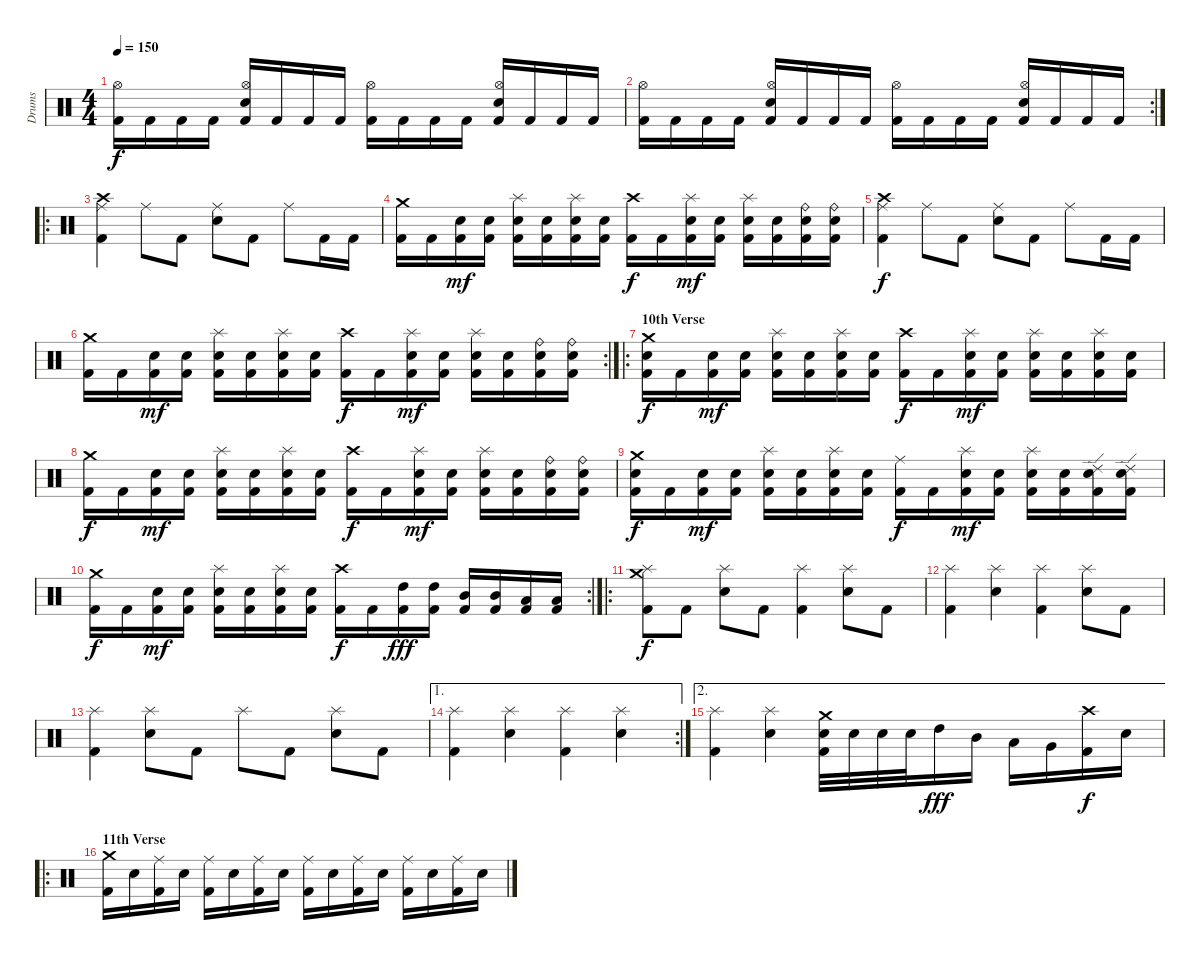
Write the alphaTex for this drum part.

\track ("Drums" "Drums") {instrument percussion}
\staff {score}
\articulation defaults
\ts (4 4)
\tempo 150
\clef neutral
\ks c
("Kick (hit) 2" "Hi-Hat (open)").16{dy f} "Kick (hit) 2".16 "Kick (hit) 2".16 "Kick (hit) 2".16 ("Kick (hit) 2" "Electric Snare (hit)" "Hi-Hat (open)").16 "Kick (hit) 2".16 "Kick (hit) 2".16 "Kick (hit) 2".16 ("Kick (hit) 2" "Hi-Hat (open)").16 "Kick (hit) 2".16 "Kick (hit) 2".16 "Kick (hit) 2".16 ("Kick (hit) 2" "Electric Snare (hit)" "Hi-Hat (open)").16 "Kick (hit) 2".16 "Kick (hit) 2".16 "Kick (hit) 2".16 |
\rc 2
("Kick (hit) 2" "Hi-Hat (open)").16 "Kick (hit) 2".16 "Kick (hit) 2".16 "Kick (hit) 2".16 ("Kick (hit) 2" "Electric Snare (hit)" "Hi-Hat (open)").16 "Kick (hit) 2".16 "Kick (hit) 2".16 "Kick (hit) 2".16 ("Kick (hit) 2" "Hi-Hat (open)").16 "Kick (hit) 2".16 "Kick (hit) 2".16 "Kick (hit) 2".16 ("Kick (hit) 2" "Electric Snare (hit)" "Hi-Hat (open)").16 "Kick (hit) 2".16 "Kick (hit) 2".16 "Kick (hit) 2".16 |
\ro
("Kick (hit) 2" "Ride (middle)" "Crash high (hit)").4 "Ride (middle)".8 "Kick (hit) 2".8 ("Electric Snare (hit)" "Ride (middle)").8 "Kick (hit) 2".8 "Ride (middle)".8 "Kick (hit) 2".16 "Kick (hit) 2".16 |
("Kick (hit) 2" "Crash medium (hit)").16 "Kick (hit) 2".16 ("Kick (hit) 2" "Electric Snare (hit)").16{dy mf} ("Kick (hit) 2" "Electric Snare (hit)").16 ("Kick (hit) 2" "Electric Snare (hit)" "Splash (hit)").16 ("Kick (hit) 2" "Electric Snare (hit)").16 ("Kick (hit) 2" "Electric Snare (hit)" "Splash (hit)").16 ("Kick (hit) 2" "Electric Snare (hit)").16 ("Kick (hit) 2" "Crash high (hit)").16{dy f} "Kick (hit) 2".16 ("Kick (hit) 2" "Electric Snare (hit)" "Splash (hit)").16{dy mf} ("Kick (hit) 2" "Electric Snare (hit)").16 ("Kick (hit) 2" "Electric Snare (hit)" "Splash (hit)").16 ("Kick (hit) 2" "Electric Snare (hit)").16 ("Kick (hit) 2" "Electric Snare (hit)" "Ride (bell)").16 ("Kick (hit) 2" "Electric Snare (hit)" "Ride (bell)").16 |
("Kick (hit) 2" "Ride (middle)" "Crash high (hit)").4{dy f} "Ride (middle)".8 "Kick (hit) 2".8 ("Electric Snare (hit)" "Ride (middle)").8 "Kick (hit) 2".8 "Ride (middle)".8 "Kick (hit) 2".16 "Kick (hit) 2".16 |
\rc 2
("Kick (hit) 2" "Crash medium (hit)").16 "Kick (hit) 2".16 ("Kick (hit) 2" "Electric Snare (hit)").16{dy mf} ("Kick (hit) 2" "Electric Snare (hit)").16 ("Kick (hit) 2" "Electric Snare (hit)" "Splash (hit)").16 ("Kick (hit) 2" "Electric Snare (hit)").16 ("Kick (hit) 2" "Electric Snare (hit)" "Splash (hit)").16 ("Kick (hit) 2" "Electric Snare (hit)").16 ("Kick (hit) 2" "Crash high (hit)").16{dy f} "Kick (hit) 2".16 ("Kick (hit) 2" "Electric Snare (hit)" "Splash (hit)").16{dy mf} ("Kick (hit) 2" "Electric Snare (hit)").16 ("Kick (hit) 2" "Electric Snare (hit)" "Splash (hit)").16 ("Kick (hit) 2" "Electric Snare (hit)").16 ("Kick (hit) 2" "Electric Snare (hit)" "Ride (bell)").16 ("Kick (hit) 2" "Electric Snare (hit)" "Ride (bell)").16 |
\ro
\section ("" "10th Verse")
("Kick (hit) 2" "Electric Snare (hit)" "Crash medium (hit)").16{dy f} "Kick (hit) 2".16 ("Kick (hit) 2" "Electric Snare (hit)").16{dy mf} ("Kick (hit) 2" "Electric Snare (hit)").16 ("Kick (hit) 2" "Electric Snare (hit)" "Splash (hit)").16 ("Kick (hit) 2" "Electric Snare (hit)").16 ("Kick (hit) 2" "Electric Snare (hit)" "Splash (hit)").16 ("Kick (hit) 2" "Electric Snare (hit)").16 ("Kick (hit) 2" "Crash high (hit)").16{dy f} "Kick (hit) 2".16 ("Kick (hit) 2" "Electric Snare (hit)" "Splash (hit)").16{dy mf} ("Kick (hit) 2" "Electric Snare (hit)").16 ("Kick (hit) 2" "Electric Snare (hit)" "Splash (hit)").16 ("Kick (hit) 2" "Electric Snare (hit)").16 ("Kick (hit) 2" "Electric Snare (hit)" "Splash (hit)").16 ("Kick (hit) 2" "Electric Snare (hit)").16 |
("Kick (hit) 2" "Crash medium (hit)").16{dy f} "Kick (hit) 2".16 ("Kick (hit) 2" "Electric Snare (hit)").16{dy mf} ("Kick (hit) 2" "Electric Snare (hit)").16 ("Kick (hit) 2" "Electric Snare (hit)" "Splash (hit)").16 ("Kick (hit) 2" "Electric Snare (hit)").16 ("Kick (hit) 2" "Electric Snare (hit)" "Splash (hit)").16 ("Kick (hit) 2" "Electric Snare (hit)").16 ("Kick (hit) 2" "Crash high (hit)").16{dy f} "Kick (hit) 2".16 ("Kick (hit) 2" "Electric Snare (hit)" "Splash (hit)").16{dy mf} ("Kick (hit) 2" "Electric Snare (hit)").16 ("Kick (hit) 2" "Electric Snare (hit)" "Splash (hit)").16 ("Kick (hit) 2" "Electric Snare (hit)").16 ("Kick (hit) 2" "Electric Snare (hit)" "Ride (bell)").16 ("Kick (hit) 2" "Electric Snare (hit)" "Ride (bell)").16 |
("Kick (hit) 2" "Electric Snare (hit)" "Crash medium (hit)").16{dy f} "Kick (hit) 2".16 ("Kick (hit) 2" "Electric Snare (hit)").16{dy mf} ("Kick (hit) 2" "Electric Snare (hit)").16 ("Kick (hit) 2" "Electric Snare (hit)" "Splash (hit)").16 ("Kick (hit) 2" "Electric Snare (hit)").16 ("Kick (hit) 2" "Electric Snare (hit)" "Splash (hit)").16 ("Kick (hit) 2" "Electric Snare (hit)").16 ("Kick (hit) 2" "Ride (middle)").16{dy f} "Kick (hit) 2".16 ("Kick (hit) 2" "Electric Snare (hit)" "Splash (hit)").16{dy mf} ("Kick (hit) 2" "Electric Snare (hit)").16 ("Kick (hit) 2" "Electric Snare (hit)" "Splash (hit)").16 ("Kick (hit) 2" "Electric Snare (hit)").16 ("Kick (hit) 2" "Electric Snare (hit)" "Ride (edge) 2").16 ("Kick (hit) 2" "Electric Snare (hit)" "Ride (edge) 2").16 |
\rc 2
("Kick (hit) 2" "Crash medium (hit)").16{dy f} "Kick (hit) 2".16 ("Kick (hit) 2" "Electric Snare (hit)").16{dy mf} ("Kick (hit) 2" "Electric Snare (hit)").16 ("Kick (hit) 2" "Electric Snare (hit)" "Splash (hit)").16 ("Kick (hit) 2" "Electric Snare (hit)").16 ("Kick (hit) 2" "Electric Snare (hit)" "Splash (hit)").16 ("Kick (hit) 2" "Electric Snare (hit)").16 ("Kick (hit) 2" "Crash high (hit)").16{dy f} "Kick (hit) 2".16 ("Kick (hit) 2" "High Tom (hit)").16{dy fff} ("Kick (hit) 2" "High Tom (hit)").16 ("Kick (hit) 2" "Mid Tom (hit)").16 ("Kick (hit) 2" "Mid Tom (hit)").16 ("Kick (hit) 2" "Low Tom (hit)").16 ("Kick (hit) 2" "Low Tom (hit)").16 |
\ro
("Kick (hit) 2" "Splash (hit)" "Crash medium (hit)").8{dy f} "Kick (hit) 2".8 ("Electric Snare (hit)" "Splash (hit)").8 "Kick (hit) 2".8 ("Kick (hit) 2" "Splash (hit)").4 ("Electric Snare (hit)" "Splash (hit)").8 "Kick (hit) 2".8 |
("Kick (hit) 2" "Splash (hit)").4 ("Electric Snare (hit)" "Splash (hit)").4 ("Kick (hit) 2" "Splash (hit)").4 ("Electric Snare (hit)" "Splash (hit)").8 "Kick (hit) 2".8 |
("Kick (hit) 2" "Splash (hit)").4 ("Electric Snare (hit)" "Splash (hit)").8 "Kick (hit) 2".8 "Splash (hit)".8 "Kick (hit) 2".8 ("Electric Snare (hit)" "Splash (hit)").8 "Kick (hit) 2".8 |
\ae 1
\rc 2
("Kick (hit) 2" "Splash (hit)").4 ("Electric Snare (hit)" "Splash (hit)").4 ("Kick (hit) 2" "Splash (hit)").4 ("Electric Snare (hit)" "Splash (hit)").4 |
\ae 2
("Kick (hit) 2" "Splash (hit)").4 ("Electric Snare (hit)" "Splash (hit)").4 ("Kick (hit) 2" "Electric Snare (hit)" "Crash medium (hit)").32 "Electric Snare (hit)".32 "Electric Snare (hit)".32 "Electric Snare (hit)".32 "High Tom (hit)".16{dy fff} "Mid Tom (hit)".16 "Low Tom (hit)".16 "Very Low Tom (hit)".16 ("Kick (hit) 2" "Crash high (hit)").16{dy f} "Electric Snare (hit)".16 |
\ro
\section ("" "11th Verse")
("Kick (hit) 2" "Crash medium (hit)").16 "Electric Snare (hit)".16 ("Kick (hit) 2" "Ride (middle)").16 "Electric Snare (hit)".16 ("Kick (hit) 2" "Ride (middle)").16 "Electric Snare (hit)".16 ("Kick (hit) 2" "Ride (middle)").16 "Electric Snare (hit)".16 ("Kick (hit) 2" "Ride (middle)").16 "Electric Snare (hit)".16 ("Kick (hit) 2" "Ride (middle)").16 "Electric Snare (hit)".16 ("Kick (hit) 2" "Ride (middle)").16 "Electric Snare (hit)".16 ("Kick (hit) 2" "Ride (middle)").16 "Electric Snare (hit)".16
